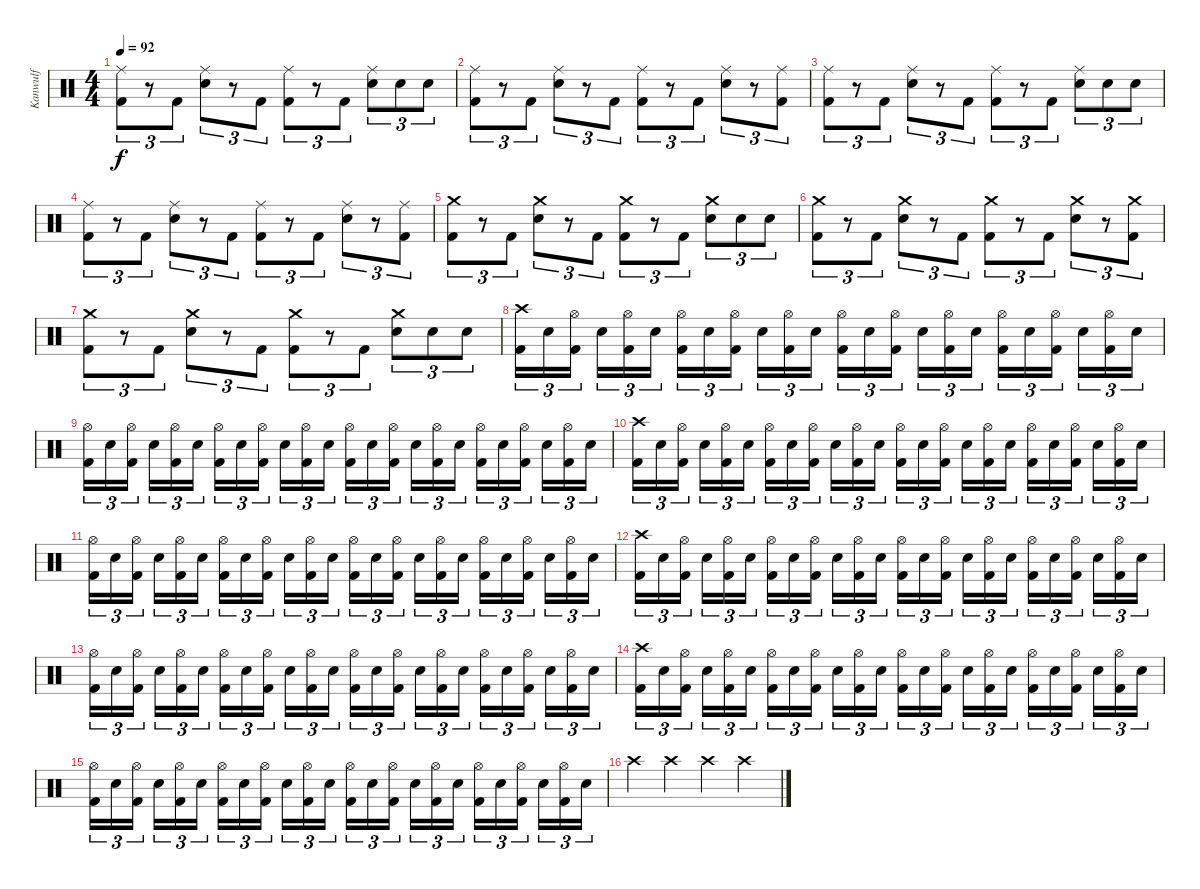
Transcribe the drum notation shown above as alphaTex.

\track ("Kanwulf" "Kanwulf") {instrument percussion}
\staff {score}
\articulation defaults
\ts (4 4)
\tempo 92
\clef neutral
\ks c
("Ride (middle)" "Kick (hit) 2").8{tu (3 2) dy f} r.8{tu (3 2)} "Kick (hit) 2".8{tu (3 2)} ("Ride (middle)" "Electric Snare (hit)").8{tu (3 2)} r.8{tu (3 2)} "Kick (hit) 2".8{tu (3 2)} ("Ride (middle)" "Kick (hit) 2").8{tu (3 2)} r.8{tu (3 2)} "Kick (hit) 2".8{tu (3 2)} ("Ride (middle)" "Electric Snare (hit)").8{tu (3 2)} "Electric Snare (hit)".8{tu (3 2)} "Electric Snare (hit)".8{tu (3 2)} |
("Ride (middle)" "Kick (hit) 2").8{tu (3 2)} r.8{tu (3 2)} "Kick (hit) 2".8{tu (3 2)} ("Ride (middle)" "Electric Snare (hit)").8{tu (3 2)} r.8{tu (3 2)} "Kick (hit) 2".8{tu (3 2)} ("Ride (middle)" "Kick (hit) 2").8{tu (3 2)} r.8{tu (3 2)} "Kick (hit) 2".8{tu (3 2)} ("Ride (middle)" "Electric Snare (hit)").8{tu (3 2)} r.8{tu (3 2)} ("Ride (middle)" "Kick (hit) 2").8{tu (3 2)} |
("Ride (middle)" "Kick (hit) 2").8{tu (3 2)} r.8{tu (3 2)} "Kick (hit) 2".8{tu (3 2)} ("Ride (middle)" "Electric Snare (hit)").8{tu (3 2)} r.8{tu (3 2)} "Kick (hit) 2".8{tu (3 2)} ("Ride (middle)" "Kick (hit) 2").8{tu (3 2)} r.8{tu (3 2)} "Kick (hit) 2".8{tu (3 2)} ("Ride (middle)" "Electric Snare (hit)").8{tu (3 2)} "Electric Snare (hit)".8{tu (3 2)} "Electric Snare (hit)".8{tu (3 2)} |
("Ride (middle)" "Kick (hit) 2").8{tu (3 2)} r.8{tu (3 2)} "Kick (hit) 2".8{tu (3 2)} ("Ride (middle)" "Electric Snare (hit)").8{tu (3 2)} r.8{tu (3 2)} "Kick (hit) 2".8{tu (3 2)} ("Ride (middle)" "Kick (hit) 2").8{tu (3 2)} r.8{tu (3 2)} "Kick (hit) 2".8{tu (3 2)} ("Ride (middle)" "Electric Snare (hit)").8{tu (3 2)} r.8{tu (3 2)} ("Ride (middle)" "Kick (hit) 2").8{tu (3 2)} |
("Crash medium (hit)" "Kick (hit) 2").8{tu (3 2)} r.8{tu (3 2)} "Kick (hit) 2".8{tu (3 2)} ("Crash medium (hit)" "Electric Snare (hit)").8{tu (3 2)} r.8{tu (3 2)} "Kick (hit) 2".8{tu (3 2)} ("Crash medium (hit)" "Kick (hit) 2").8{tu (3 2)} r.8{tu (3 2)} "Kick (hit) 2".8{tu (3 2)} ("Crash medium (hit)" "Electric Snare (hit)").8{tu (3 2)} "Electric Snare (hit)".8{tu (3 2)} "Electric Snare (hit)".8{tu (3 2)} |
("Crash medium (hit)" "Kick (hit) 2").8{tu (3 2)} r.8{tu (3 2)} "Kick (hit) 2".8{tu (3 2)} ("Crash medium (hit)" "Electric Snare (hit)").8{tu (3 2)} r.8{tu (3 2)} "Kick (hit) 2".8{tu (3 2)} ("Crash medium (hit)" "Kick (hit) 2").8{tu (3 2)} r.8{tu (3 2)} "Kick (hit) 2".8{tu (3 2)} ("Crash medium (hit)" "Electric Snare (hit)").8{tu (3 2)} r.8{tu (3 2)} ("Crash medium (hit)" "Kick (hit) 2").8{tu (3 2)} |
("Crash medium (hit)" "Kick (hit) 2").8{tu (3 2)} r.8{tu (3 2)} "Kick (hit) 2".8{tu (3 2)} ("Crash medium (hit)" "Electric Snare (hit)").8{tu (3 2)} r.8{tu (3 2)} "Kick (hit) 2".8{tu (3 2)} ("Crash medium (hit)" "Kick (hit) 2").8{tu (3 2)} r.8{tu (3 2)} "Kick (hit) 2".8{tu (3 2)} ("Crash medium (hit)" "Electric Snare (hit)").8{tu (3 2)} "Electric Snare (hit)".8{tu (3 2)} "Electric Snare (hit)".8{tu (3 2)} |
("Crash high (hit)" "Kick (hit) 2").16{tu (3 2)} "Electric Snare (hit)".16{tu (3 2)} ("Hi-Hat (open)" "Kick (hit) 2").16{tu (3 2)} "Electric Snare (hit)".16{tu (3 2)} ("Hi-Hat (open)" "Kick (hit) 2").16{tu (3 2)} "Electric Snare (hit)".16{tu (3 2)} ("Hi-Hat (open)" "Kick (hit) 2").16{tu (3 2)} "Electric Snare (hit)".16{tu (3 2)} ("Hi-Hat (open)" "Kick (hit) 2").16{tu (3 2)} "Electric Snare (hit)".16{tu (3 2)} ("Hi-Hat (open)" "Kick (hit) 2").16{tu (3 2)} "Electric Snare (hit)".16{tu (3 2)} ("Hi-Hat (open)" "Kick (hit) 2").16{tu (3 2)} "Electric Snare (hit)".16{tu (3 2)} ("Hi-Hat (open)" "Kick (hit) 2").16{tu (3 2)} "Electric Snare (hit)".16{tu (3 2)} ("Hi-Hat (open)" "Kick (hit) 2").16{tu (3 2)} "Electric Snare (hit)".16{tu (3 2)} ("Hi-Hat (open)" "Kick (hit) 2").16{tu (3 2)} "Electric Snare (hit)".16{tu (3 2)} ("Hi-Hat (open)" "Kick (hit) 2").16{tu (3 2)} "Electric Snare (hit)".16{tu (3 2)} ("Hi-Hat (open)" "Kick (hit) 2").16{tu (3 2)} "Electric Snare (hit)".16{tu (3 2)} |
("Hi-Hat (open)" "Kick (hit) 2").16{tu (3 2)} "Electric Snare (hit)".16{tu (3 2)} ("Hi-Hat (open)" "Kick (hit) 2").16{tu (3 2)} "Electric Snare (hit)".16{tu (3 2)} ("Hi-Hat (open)" "Kick (hit) 2").16{tu (3 2)} "Electric Snare (hit)".16{tu (3 2)} ("Hi-Hat (open)" "Kick (hit) 2").16{tu (3 2)} "Electric Snare (hit)".16{tu (3 2)} ("Hi-Hat (open)" "Kick (hit) 2").16{tu (3 2)} "Electric Snare (hit)".16{tu (3 2)} ("Hi-Hat (open)" "Kick (hit) 2").16{tu (3 2)} "Electric Snare (hit)".16{tu (3 2)} ("Hi-Hat (open)" "Kick (hit) 2").16{tu (3 2)} "Electric Snare (hit)".16{tu (3 2)} ("Hi-Hat (open)" "Kick (hit) 2").16{tu (3 2)} "Electric Snare (hit)".16{tu (3 2)} ("Hi-Hat (open)" "Kick (hit) 2").16{tu (3 2)} "Electric Snare (hit)".16{tu (3 2)} ("Hi-Hat (open)" "Kick (hit) 2").16{tu (3 2)} "Electric Snare (hit)".16{tu (3 2)} ("Hi-Hat (open)" "Kick (hit) 2").16{tu (3 2)} "Electric Snare (hit)".16{tu (3 2)} ("Hi-Hat (open)" "Kick (hit) 2").16{tu (3 2)} "Electric Snare (hit)".16{tu (3 2)} |
("Crash high (hit)" "Kick (hit) 2").16{tu (3 2)} "Electric Snare (hit)".16{tu (3 2)} ("Hi-Hat (open)" "Kick (hit) 2").16{tu (3 2)} "Electric Snare (hit)".16{tu (3 2)} ("Hi-Hat (open)" "Kick (hit) 2").16{tu (3 2)} "Electric Snare (hit)".16{tu (3 2)} ("Hi-Hat (open)" "Kick (hit) 2").16{tu (3 2)} "Electric Snare (hit)".16{tu (3 2)} ("Hi-Hat (open)" "Kick (hit) 2").16{tu (3 2)} "Electric Snare (hit)".16{tu (3 2)} ("Hi-Hat (open)" "Kick (hit) 2").16{tu (3 2)} "Electric Snare (hit)".16{tu (3 2)} ("Hi-Hat (open)" "Kick (hit) 2").16{tu (3 2)} "Electric Snare (hit)".16{tu (3 2)} ("Hi-Hat (open)" "Kick (hit) 2").16{tu (3 2)} "Electric Snare (hit)".16{tu (3 2)} ("Hi-Hat (open)" "Kick (hit) 2").16{tu (3 2)} "Electric Snare (hit)".16{tu (3 2)} ("Hi-Hat (open)" "Kick (hit) 2").16{tu (3 2)} "Electric Snare (hit)".16{tu (3 2)} ("Hi-Hat (open)" "Kick (hit) 2").16{tu (3 2)} "Electric Snare (hit)".16{tu (3 2)} ("Hi-Hat (open)" "Kick (hit) 2").16{tu (3 2)} "Electric Snare (hit)".16{tu (3 2)} |
("Hi-Hat (open)" "Kick (hit) 2").16{tu (3 2)} "Electric Snare (hit)".16{tu (3 2)} ("Hi-Hat (open)" "Kick (hit) 2").16{tu (3 2)} "Electric Snare (hit)".16{tu (3 2)} ("Hi-Hat (open)" "Kick (hit) 2").16{tu (3 2)} "Electric Snare (hit)".16{tu (3 2)} ("Hi-Hat (open)" "Kick (hit) 2").16{tu (3 2)} "Electric Snare (hit)".16{tu (3 2)} ("Hi-Hat (open)" "Kick (hit) 2").16{tu (3 2)} "Electric Snare (hit)".16{tu (3 2)} ("Hi-Hat (open)" "Kick (hit) 2").16{tu (3 2)} "Electric Snare (hit)".16{tu (3 2)} ("Hi-Hat (open)" "Kick (hit) 2").16{tu (3 2)} "Electric Snare (hit)".16{tu (3 2)} ("Hi-Hat (open)" "Kick (hit) 2").16{tu (3 2)} "Electric Snare (hit)".16{tu (3 2)} ("Hi-Hat (open)" "Kick (hit) 2").16{tu (3 2)} "Electric Snare (hit)".16{tu (3 2)} ("Hi-Hat (open)" "Kick (hit) 2").16{tu (3 2)} "Electric Snare (hit)".16{tu (3 2)} ("Hi-Hat (open)" "Kick (hit) 2").16{tu (3 2)} "Electric Snare (hit)".16{tu (3 2)} ("Hi-Hat (open)" "Kick (hit) 2").16{tu (3 2)} "Electric Snare (hit)".16{tu (3 2)} |
("Crash high (hit)" "Kick (hit) 2").16{tu (3 2)} "Electric Snare (hit)".16{tu (3 2)} ("Hi-Hat (open)" "Kick (hit) 2").16{tu (3 2)} "Electric Snare (hit)".16{tu (3 2)} ("Hi-Hat (open)" "Kick (hit) 2").16{tu (3 2)} "Electric Snare (hit)".16{tu (3 2)} ("Hi-Hat (open)" "Kick (hit) 2").16{tu (3 2)} "Electric Snare (hit)".16{tu (3 2)} ("Hi-Hat (open)" "Kick (hit) 2").16{tu (3 2)} "Electric Snare (hit)".16{tu (3 2)} ("Hi-Hat (open)" "Kick (hit) 2").16{tu (3 2)} "Electric Snare (hit)".16{tu (3 2)} ("Hi-Hat (open)" "Kick (hit) 2").16{tu (3 2)} "Electric Snare (hit)".16{tu (3 2)} ("Hi-Hat (open)" "Kick (hit) 2").16{tu (3 2)} "Electric Snare (hit)".16{tu (3 2)} ("Hi-Hat (open)" "Kick (hit) 2").16{tu (3 2)} "Electric Snare (hit)".16{tu (3 2)} ("Hi-Hat (open)" "Kick (hit) 2").16{tu (3 2)} "Electric Snare (hit)".16{tu (3 2)} ("Hi-Hat (open)" "Kick (hit) 2").16{tu (3 2)} "Electric Snare (hit)".16{tu (3 2)} ("Hi-Hat (open)" "Kick (hit) 2").16{tu (3 2)} "Electric Snare (hit)".16{tu (3 2)} |
("Hi-Hat (open)" "Kick (hit) 2").16{tu (3 2)} "Electric Snare (hit)".16{tu (3 2)} ("Hi-Hat (open)" "Kick (hit) 2").16{tu (3 2)} "Electric Snare (hit)".16{tu (3 2)} ("Hi-Hat (open)" "Kick (hit) 2").16{tu (3 2)} "Electric Snare (hit)".16{tu (3 2)} ("Hi-Hat (open)" "Kick (hit) 2").16{tu (3 2)} "Electric Snare (hit)".16{tu (3 2)} ("Hi-Hat (open)" "Kick (hit) 2").16{tu (3 2)} "Electric Snare (hit)".16{tu (3 2)} ("Hi-Hat (open)" "Kick (hit) 2").16{tu (3 2)} "Electric Snare (hit)".16{tu (3 2)} ("Hi-Hat (open)" "Kick (hit) 2").16{tu (3 2)} "Electric Snare (hit)".16{tu (3 2)} ("Hi-Hat (open)" "Kick (hit) 2").16{tu (3 2)} "Electric Snare (hit)".16{tu (3 2)} ("Hi-Hat (open)" "Kick (hit) 2").16{tu (3 2)} "Electric Snare (hit)".16{tu (3 2)} ("Hi-Hat (open)" "Kick (hit) 2").16{tu (3 2)} "Electric Snare (hit)".16{tu (3 2)} ("Hi-Hat (open)" "Kick (hit) 2").16{tu (3 2)} "Electric Snare (hit)".16{tu (3 2)} ("Hi-Hat (open)" "Kick (hit) 2").16{tu (3 2)} "Electric Snare (hit)".16{tu (3 2)} |
("Crash high (hit)" "Kick (hit) 2").16{tu (3 2)} "Electric Snare (hit)".16{tu (3 2)} ("Hi-Hat (open)" "Kick (hit) 2").16{tu (3 2)} "Electric Snare (hit)".16{tu (3 2)} ("Hi-Hat (open)" "Kick (hit) 2").16{tu (3 2)} "Electric Snare (hit)".16{tu (3 2)} ("Hi-Hat (open)" "Kick (hit) 2").16{tu (3 2)} "Electric Snare (hit)".16{tu (3 2)} ("Hi-Hat (open)" "Kick (hit) 2").16{tu (3 2)} "Electric Snare (hit)".16{tu (3 2)} ("Hi-Hat (open)" "Kick (hit) 2").16{tu (3 2)} "Electric Snare (hit)".16{tu (3 2)} ("Hi-Hat (open)" "Kick (hit) 2").16{tu (3 2)} "Electric Snare (hit)".16{tu (3 2)} ("Hi-Hat (open)" "Kick (hit) 2").16{tu (3 2)} "Electric Snare (hit)".16{tu (3 2)} ("Hi-Hat (open)" "Kick (hit) 2").16{tu (3 2)} "Electric Snare (hit)".16{tu (3 2)} ("Hi-Hat (open)" "Kick (hit) 2").16{tu (3 2)} "Electric Snare (hit)".16{tu (3 2)} ("Hi-Hat (open)" "Kick (hit) 2").16{tu (3 2)} "Electric Snare (hit)".16{tu (3 2)} ("Hi-Hat (open)" "Kick (hit) 2").16{tu (3 2)} "Electric Snare (hit)".16{tu (3 2)} |
("Hi-Hat (open)" "Kick (hit) 2").16{tu (3 2)} "Electric Snare (hit)".16{tu (3 2)} ("Hi-Hat (open)" "Kick (hit) 2").16{tu (3 2)} "Electric Snare (hit)".16{tu (3 2)} ("Hi-Hat (open)" "Kick (hit) 2").16{tu (3 2)} "Electric Snare (hit)".16{tu (3 2)} ("Hi-Hat (open)" "Kick (hit) 2").16{tu (3 2)} "Electric Snare (hit)".16{tu (3 2)} ("Hi-Hat (open)" "Kick (hit) 2").16{tu (3 2)} "Electric Snare (hit)".16{tu (3 2)} ("Hi-Hat (open)" "Kick (hit) 2").16{tu (3 2)} "Electric Snare (hit)".16{tu (3 2)} ("Hi-Hat (open)" "Kick (hit) 2").16{tu (3 2)} "Electric Snare (hit)".16{tu (3 2)} ("Hi-Hat (open)" "Kick (hit) 2").16{tu (3 2)} "Electric Snare (hit)".16{tu (3 2)} ("Hi-Hat (open)" "Kick (hit) 2").16{tu (3 2)} "Electric Snare (hit)".16{tu (3 2)} ("Hi-Hat (open)" "Kick (hit) 2").16{tu (3 2)} "Electric Snare (hit)".16{tu (3 2)} ("Hi-Hat (open)" "Kick (hit) 2").16{tu (3 2)} "Electric Snare (hit)".16{tu (3 2)} ("Hi-Hat (open)" "Kick (hit) 2").16{tu (3 2)} "Electric Snare (hit)".16{tu (3 2)} |
"Crash high (hit)".4 "Crash high (hit)".4 "Crash high (hit)".4 "Crash high (hit)".4
